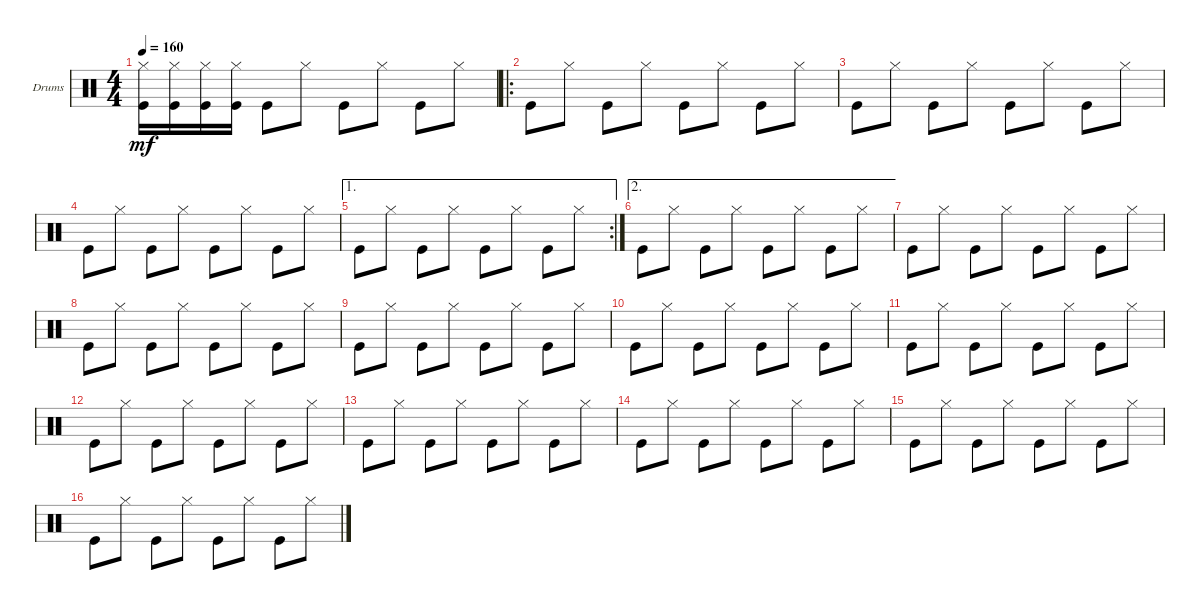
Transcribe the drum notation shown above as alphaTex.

\defaultSystemsLayout 4
\bracketExtendMode groupsimilarinstruments
\firstSystemTrackNameOrientation horizontal
\otherSystemsTrackNameOrientation horizontal
\track ("Drumkit" "Drums") {instrument percussion}
\staff {score}
\articulation defaults
\ts (4 4)
\tempo 160
\clef neutral
\ks c
("Kick (hit)" "Hi-Hat (closed)").16{dy mf} ("Kick (hit)" "Hi-Hat (closed)").16 ("Kick (hit)" "Hi-Hat (closed)").16 ("Kick (hit)" "Hi-Hat (closed)").16 "Kick (hit)".8 "Hi-Hat (closed)".8 "Kick (hit)".8 "Hi-Hat (closed)".8 "Kick (hit)".8 "Hi-Hat (closed)".8 |
\ro "Kick (hit)".8 "Hi-Hat (closed)".8 "Kick (hit)".8 "Hi-Hat (closed)".8 "Kick (hit)".8 "Hi-Hat (closed)".8 "Kick (hit)".8 "Hi-Hat (closed)".8
|
"Kick (hit)".8 "Hi-Hat (closed)".8 "Kick (hit)".8 "Hi-Hat (closed)".8 "Kick (hit)".8 "Hi-Hat (closed)".8 "Kick (hit)".8 "Hi-Hat (closed)".8 |
"Kick (hit)".8 "Hi-Hat (closed)".8 "Kick (hit)".8 "Hi-Hat (closed)".8 "Kick (hit)".8 "Hi-Hat (closed)".8 "Kick (hit)".8 "Hi-Hat (closed)".8 |
\ae 1
\rc 2 "Kick (hit)".8 "Hi-Hat (closed)".8 "Kick (hit)".8 "Hi-Hat (closed)".8 "Kick (hit)".8 "Hi-Hat (closed)".8 "Kick (hit)".8 "Hi-Hat (closed)".8
|
\ae 2 "Kick (hit)".8 "Hi-Hat (closed)".8 "Kick (hit)".8 "Hi-Hat (closed)".8 "Kick (hit)".8 "Hi-Hat (closed)".8 "Kick (hit)".8 "Hi-Hat (closed)".8
|
"Kick (hit)".8 "Hi-Hat (closed)".8 "Kick (hit)".8 "Hi-Hat (closed)".8 "Kick (hit)".8 "Hi-Hat (closed)".8 "Kick (hit)".8 "Hi-Hat (closed)".8 |
"Kick (hit)".8 "Hi-Hat (closed)".8 "Kick (hit)".8 "Hi-Hat (closed)".8 "Kick (hit)".8 "Hi-Hat (closed)".8 "Kick (hit)".8 "Hi-Hat (closed)".8 |
"Kick (hit)".8 "Hi-Hat (closed)".8 "Kick (hit)".8 "Hi-Hat (closed)".8 "Kick (hit)".8 "Hi-Hat (closed)".8 "Kick (hit)".8 "Hi-Hat (closed)".8 |
"Kick (hit)".8 "Hi-Hat (closed)".8 "Kick (hit)".8 "Hi-Hat (closed)".8 "Kick (hit)".8 "Hi-Hat (closed)".8 "Kick (hit)".8 "Hi-Hat (closed)".8 |
"Kick (hit)".8 "Hi-Hat (closed)".8 "Kick (hit)".8 "Hi-Hat (closed)".8 "Kick (hit)".8 "Hi-Hat (closed)".8 "Kick (hit)".8 "Hi-Hat (closed)".8 |
"Kick (hit)".8 "Hi-Hat (closed)".8 "Kick (hit)".8 "Hi-Hat (closed)".8 "Kick (hit)".8 "Hi-Hat (closed)".8 "Kick (hit)".8 "Hi-Hat (closed)".8 |
"Kick (hit)".8 "Hi-Hat (closed)".8 "Kick (hit)".8 "Hi-Hat (closed)".8 "Kick (hit)".8 "Hi-Hat (closed)".8 "Kick (hit)".8 "Hi-Hat (closed)".8 |
"Kick (hit)".8 "Hi-Hat (closed)".8 "Kick (hit)".8 "Hi-Hat (closed)".8 "Kick (hit)".8 "Hi-Hat (closed)".8 "Kick (hit)".8 "Hi-Hat (closed)".8 |
"Kick (hit)".8 "Hi-Hat (closed)".8 "Kick (hit)".8 "Hi-Hat (closed)".8 "Kick (hit)".8 "Hi-Hat (closed)".8 "Kick (hit)".8 "Hi-Hat (closed)".8 |
"Kick (hit)".8 "Hi-Hat (closed)".8 "Kick (hit)".8 "Hi-Hat (closed)".8 "Kick (hit)".8 "Hi-Hat (closed)".8 "Kick (hit)".8 "Hi-Hat (closed)".8
